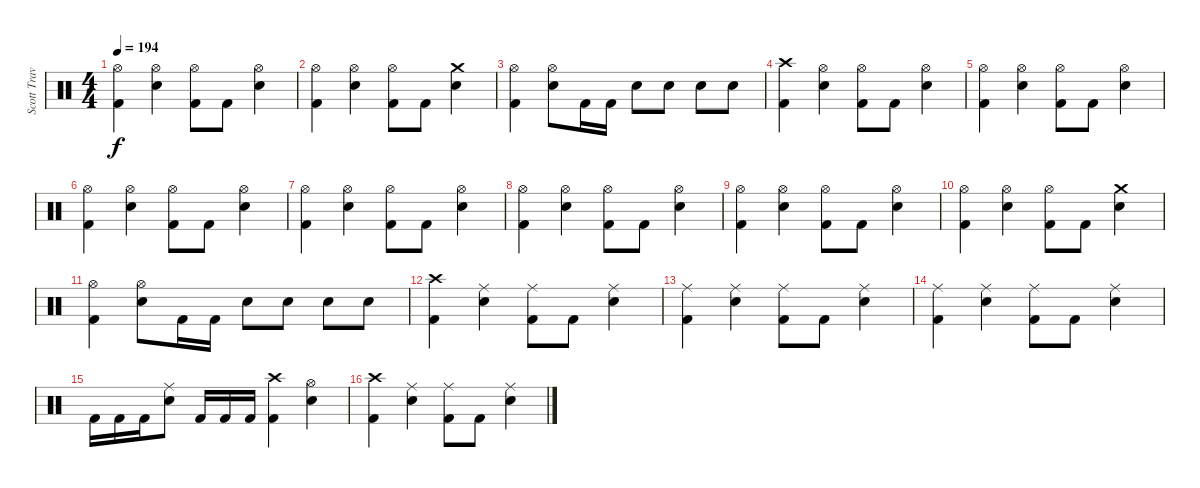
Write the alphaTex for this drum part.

\track ("Scott Travis" "Scott Trav") {instrument percussion}
\staff {score}
\articulation defaults
\ts (4 4)
\tempo 194
\clef neutral
\ks c
("Kick (hit) 2" "Hi-Hat (open)").4{dy f} ("Hi-Hat (open)" "Snare (hit) 2").4 ("Hi-Hat (open)" "Kick (hit) 2").8 "Kick (hit) 2".8 ("Snare (hit) 2" "Hi-Hat (open)").4 |
("Kick (hit) 2" "Hi-Hat (open)").4 ("Hi-Hat (open)" "Snare (hit) 2").4 ("Hi-Hat (open)" "Kick (hit) 2").8 "Kick (hit) 2".8 ("Snare (hit) 2" "Crash medium (hit)").4 |
("Kick (hit) 2" "Hi-Hat (open)").4 ("Hi-Hat (open)" "Snare (hit) 2").8 "Kick (hit) 2".16 "Kick (hit) 2".16 "Snare (hit) 2".8 "Snare (hit) 2".8 "Snare (hit) 2".8 "Snare (hit) 2".8 |
("Kick (hit) 2" "Crash high (hit)").4 ("Hi-Hat (open)" "Snare (hit) 2").4 ("Hi-Hat (open)" "Kick (hit) 2").8 "Kick (hit) 2".8 ("Snare (hit) 2" "Hi-Hat (open)").4 |
("Kick (hit) 2" "Hi-Hat (open)").4 ("Hi-Hat (open)" "Snare (hit) 2").4 ("Hi-Hat (open)" "Kick (hit) 2").8 "Kick (hit) 2".8 ("Snare (hit) 2" "Hi-Hat (open)").4 |
("Kick (hit) 2" "Hi-Hat (open)").4 ("Hi-Hat (open)" "Snare (hit) 2").4 ("Hi-Hat (open)" "Kick (hit) 2").8 "Kick (hit) 2".8 ("Snare (hit) 2" "Hi-Hat (open)").4 |
("Kick (hit) 2" "Hi-Hat (open)").4 ("Hi-Hat (open)" "Snare (hit) 2").4 ("Hi-Hat (open)" "Kick (hit) 2").8 "Kick (hit) 2".8 ("Snare (hit) 2" "Hi-Hat (open)").4 |
("Kick (hit) 2" "Hi-Hat (open)").4 ("Hi-Hat (open)" "Snare (hit) 2").4 ("Hi-Hat (open)" "Kick (hit) 2").8 "Kick (hit) 2".8 ("Snare (hit) 2" "Hi-Hat (open)").4 |
("Kick (hit) 2" "Hi-Hat (open)").4 ("Hi-Hat (open)" "Snare (hit) 2").4 ("Hi-Hat (open)" "Kick (hit) 2").8 "Kick (hit) 2".8 ("Snare (hit) 2" "Hi-Hat (open)").4 |
("Kick (hit) 2" "Hi-Hat (open)").4 ("Hi-Hat (open)" "Snare (hit) 2").4 ("Hi-Hat (open)" "Kick (hit) 2").8 "Kick (hit) 2".8 ("Snare (hit) 2" "Crash medium (hit)").4 |
("Kick (hit) 2" "Hi-Hat (open)").4 ("Hi-Hat (open)" "Snare (hit) 2").8 "Kick (hit) 2".16 "Kick (hit) 2".16 "Snare (hit) 2".8 "Snare (hit) 2".8 "Snare (hit) 2".8 "Snare (hit) 2".8 |
("Kick (hit) 2" "Crash high (hit)").4 ("Ride (middle)" "Snare (hit) 2").4 ("Ride (middle)" "Kick (hit) 2").8 "Kick (hit) 2".8 ("Snare (hit) 2" "Ride (middle)").4 |
("Kick (hit) 2" "Ride (middle)").4 ("Ride (middle)" "Snare (hit) 2").4 ("Ride (middle)" "Kick (hit) 2").8 "Kick (hit) 2".8 ("Snare (hit) 2" "Ride (middle)").4 |
("Kick (hit) 2" "Ride (middle)").4 ("Ride (middle)" "Snare (hit) 2").4 ("Ride (middle)" "Kick (hit) 2").8 "Kick (hit) 2".8 ("Snare (hit) 2" "Ride (middle)").4 |
"Kick (hit) 2".16 "Kick (hit) 2".16 "Kick (hit) 2".16 ("Ride (middle)" "Snare (hit) 2").8 "Kick (hit) 2".16 "Kick (hit) 2".16 "Kick (hit) 2".16 ("Crash high (hit)" "Kick (hit) 2").4 ("Hi-Hat (open)" "Snare (hit) 2").4 |
("Kick (hit) 2" "Crash high (hit)").4 ("Ride (middle)" "Snare (hit) 2").4 ("Ride (middle)" "Kick (hit) 2").8 "Kick (hit) 2".8 ("Snare (hit) 2" "Ride (middle)").4
